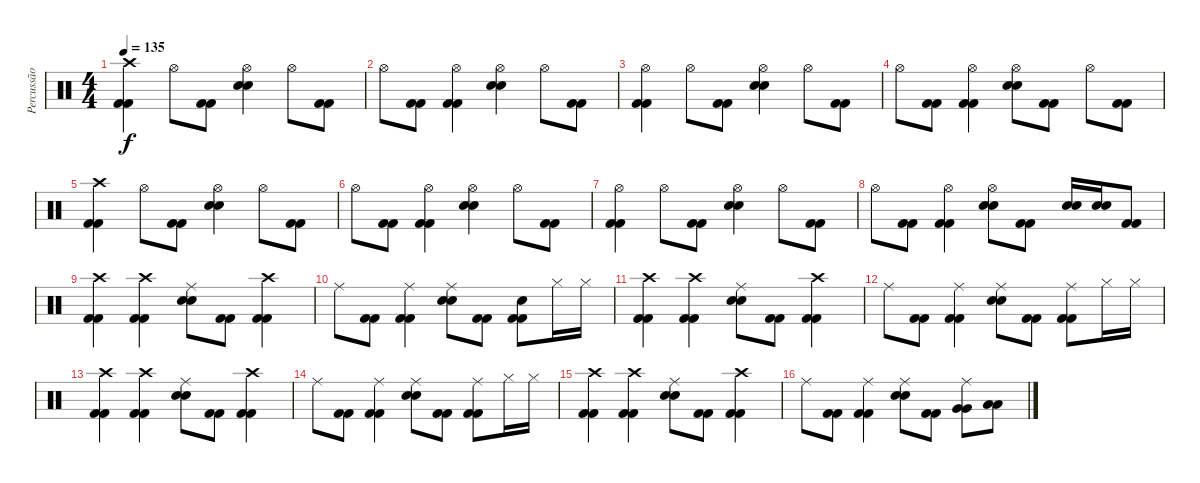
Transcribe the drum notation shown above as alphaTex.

\track ("Percussão" "Percussão") {instrument percussion}
\staff {score}
\articulation defaults
\ts (4 4)
\tempo 135
\clef neutral
\ks c
("Crash high (hit)" "Kick (hit) 2" "Kick (hit) 2").4{dy f} "Hi-Hat (open)".8 ("Kick (hit) 2" "Kick (hit) 2").8 ("Hi-Hat (open)" "Electric Snare (hit)" "Electric Snare (hit)").4 "Hi-Hat (open)".8 ("Kick (hit) 2" "Kick (hit) 2").8 |
"Hi-Hat (open)".8 ("Kick (hit) 2" "Kick (hit) 2").8 ("Hi-Hat (open)" "Kick (hit) 2" "Kick (hit) 2").4 ("Hi-Hat (open)" "Electric Snare (hit)" "Electric Snare (hit)").4 "Hi-Hat (open)".8 ("Kick (hit) 2" "Kick (hit) 2").8 |
("Hi-Hat (open)" "Kick (hit) 2" "Kick (hit) 2").4 "Hi-Hat (open)".8 ("Kick (hit) 2" "Kick (hit) 2").8 ("Hi-Hat (open)" "Electric Snare (hit)" "Electric Snare (hit)").4 "Hi-Hat (open)".8 ("Kick (hit) 2" "Kick (hit) 2").8 |
"Hi-Hat (open)".8 ("Kick (hit) 2" "Kick (hit) 2").8 ("Hi-Hat (open)" "Kick (hit) 2" "Kick (hit) 2").4 ("Hi-Hat (open)" "Electric Snare (hit)" "Electric Snare (hit)").8 ("Kick (hit) 2" "Kick (hit) 2").8 "Hi-Hat (open)".8 ("Kick (hit) 2" "Kick (hit) 2").8 |
("Crash high (hit)" "Kick (hit) 2" "Kick (hit) 2").4 "Hi-Hat (open)".8 ("Kick (hit) 2" "Kick (hit) 2").8 ("Hi-Hat (open)" "Electric Snare (hit)" "Electric Snare (hit)").4 "Hi-Hat (open)".8 ("Kick (hit) 2" "Kick (hit) 2").8 |
"Hi-Hat (open)".8 ("Kick (hit) 2" "Kick (hit) 2").8 ("Hi-Hat (open)" "Kick (hit) 2" "Kick (hit) 2").4 ("Hi-Hat (open)" "Electric Snare (hit)" "Electric Snare (hit)").4 "Hi-Hat (open)".8 ("Kick (hit) 2" "Kick (hit) 2").8 |
("Hi-Hat (open)" "Kick (hit) 2" "Kick (hit) 2").4 "Hi-Hat (open)".8 ("Kick (hit) 2" "Kick (hit) 2").8 ("Hi-Hat (open)" "Electric Snare (hit)" "Electric Snare (hit)").4 "Hi-Hat (open)".8 ("Kick (hit) 2" "Kick (hit) 2").8 |
"Hi-Hat (open)".8 ("Kick (hit) 2" "Kick (hit) 2").8 ("Hi-Hat (open)" "Kick (hit) 2" "Kick (hit) 2").4 ("Hi-Hat (open)" "Electric Snare (hit)" "Electric Snare (hit)").8 ("Kick (hit) 2" "Kick (hit) 2").8 ("Electric Snare (hit)" "Electric Snare (hit)").16 ("Electric Snare (hit)" "Electric Snare (hit)").16 ("Kick (hit) 2" "Kick (hit) 2").8 |
("Crash high (hit)" "Kick (hit) 2" "Kick (hit) 2").4 ("Crash high (hit)" "Kick (hit) 2" "Kick (hit) 2").4 ("Ride (middle)" "Electric Snare (hit)" "Electric Snare (hit)").8 ("Kick (hit) 2" "Kick (hit) 2").8 ("Crash high (hit)" "Kick (hit) 2" "Kick (hit) 2").4 |
"Ride (middle)".8 ("Kick (hit) 2" "Kick (hit) 2").8 ("Ride (middle)" "Kick (hit) 2" "Kick (hit) 2").4 ("Ride (middle)" "Electric Snare (hit)" "Electric Snare (hit)").8 ("Kick (hit) 2" "Kick (hit) 2").8 ("Snare (hit)" "Kick (hit) 2" "Kick (hit) 2").8 "Hi-Hat (closed)".16 "Hi-Hat (closed)".16 |
("Crash high (hit)" "Kick (hit) 2" "Kick (hit) 2").4 ("Crash high (hit)" "Kick (hit) 2" "Kick (hit) 2").4 ("Ride (middle)" "Electric Snare (hit)" "Electric Snare (hit)").8 ("Kick (hit) 2" "Kick (hit) 2").8 ("Crash high (hit)" "Kick (hit) 2" "Kick (hit) 2").4 |
"Ride (middle)".8 ("Kick (hit) 2" "Kick (hit) 2").8 ("Ride (middle)" "Kick (hit) 2" "Kick (hit) 2").4 ("Ride (middle)" "Electric Snare (hit)" "Electric Snare (hit)").8 ("Kick (hit) 2" "Kick (hit) 2").8 ("Ride (middle)" "Kick (hit) 2" "Kick (hit) 2").8 "Hi-Hat (closed)".16 "Hi-Hat (closed)".16 |
("Crash high (hit)" "Kick (hit) 2" "Kick (hit) 2").4 ("Crash high (hit)" "Kick (hit) 2" "Kick (hit) 2").4 ("Ride (middle)" "Electric Snare (hit)" "Electric Snare (hit)").8 ("Kick (hit) 2" "Kick (hit) 2").8 ("Crash high (hit)" "Kick (hit) 2" "Kick (hit) 2").4 |
"Ride (middle)".8 ("Kick (hit) 2" "Kick (hit) 2").8 ("Ride (middle)" "Kick (hit) 2" "Kick (hit) 2").4 ("Ride (middle)" "Electric Snare (hit)" "Electric Snare (hit)").8 ("Kick (hit) 2" "Kick (hit) 2").8 ("Ride (middle)" "Kick (hit) 2" "Kick (hit) 2").8 "Hi-Hat (closed)".16 "Hi-Hat (closed)".16 |
("Crash high (hit)" "Kick (hit) 2" "Kick (hit) 2").4 ("Crash high (hit)" "Kick (hit) 2" "Kick (hit) 2").4 ("Ride (middle)" "Electric Snare (hit)" "Electric Snare (hit)").8 ("Kick (hit) 2" "Kick (hit) 2").8 ("Crash high (hit)" "Kick (hit) 2" "Kick (hit) 2").4 |
"Ride (middle)".8 ("Kick (hit) 2" "Kick (hit) 2").8 ("Ride (middle)" "Kick (hit) 2" "Kick (hit) 2").4 ("Ride (middle)" "Electric Snare (hit)" "Electric Snare (hit)").8 ("Kick (hit) 2" "Kick (hit) 2").8 ("Ride (middle)" "Very Low Tom (hit)" "Very Low Tom (hit)").8 ("Low Tom (hit)" "Low Tom (hit)").8
